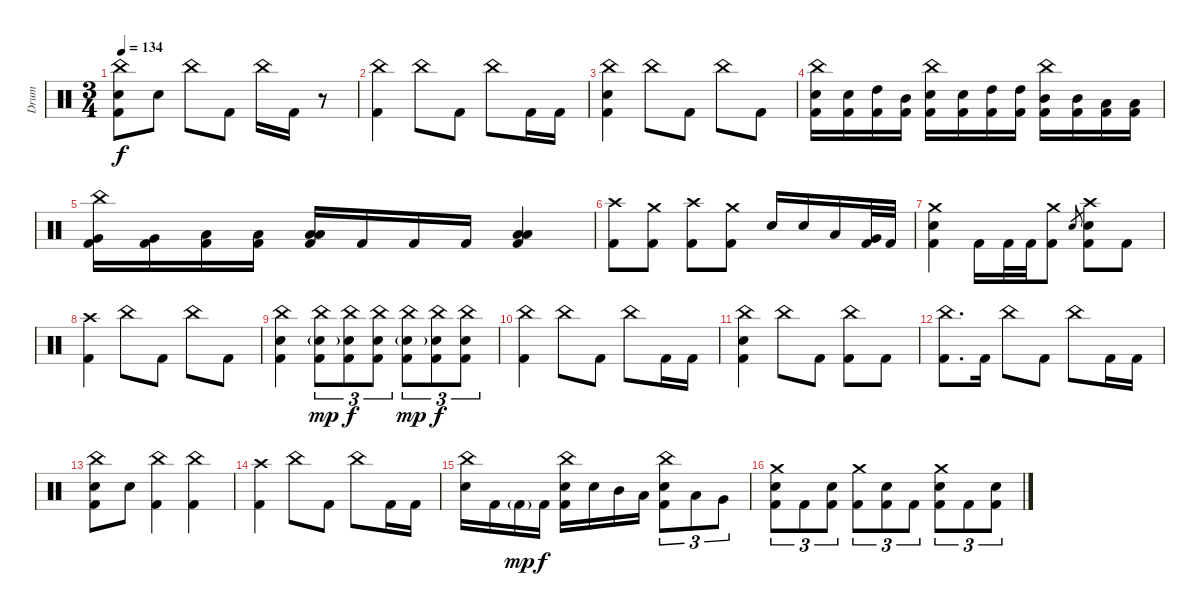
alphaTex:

\track ("Drum" "Drum") {instrument percussion}
\staff {score}
\articulation defaults
\ts (3 4)
\tempo 134
\clef neutral
\ks c
("China (hit)" "Electric Snare (hit)" "Kick (hit) 2").8{dy f} "Electric Snare (hit)".8 "China (hit)".8 "Kick (hit) 2".8 "China (hit)".16 "Kick (hit) 2".16 r.8 |
("China (hit)" "Kick (hit) 2").4 "China (hit)".8 "Kick (hit) 2".8 "China (hit)".8 "Kick (hit) 2".16 "Kick (hit) 2".16 |
("China (hit)" "Electric Snare (hit)" "Kick (hit) 2").4 "China (hit)".8 "Kick (hit) 2".8 "China (hit)".8 "Kick (hit) 2".8 |
("China (hit)" "Electric Snare (hit)" "Kick (hit) 2").16 ("Electric Snare (hit)" "Kick (hit) 2").16 ("High Tom (hit)" "Kick (hit) 2").16 ("Mid Tom (hit)" "Kick (hit) 2").16 ("China (hit)" "Electric Snare (hit)" "Kick (hit) 2").16 ("Electric Snare (hit)" "Kick (hit) 2").16 ("High Tom (hit)" "Kick (hit) 2").16 ("High Tom (hit)" "Kick (hit) 2").16 ("China (hit)" "Mid Tom (hit)" "Kick (hit) 2").16 ("Mid Tom (hit)" "Kick (hit) 2").16 ("Low Tom (hit)" "Kick (hit) 2").16 ("Low Tom (hit)" "Kick (hit) 2").16 |
("China (hit)" "Very Low Tom (hit)" "Kick (hit) 2").16 ("Very Low Tom (hit)" "Kick (hit) 2").16 ("Low Floor Tom (hit)" "Kick (hit) 2").16 ("Low Floor Tom (hit)" "Kick (hit) 2").16 ("Low Tom (hit)" "Low Tom (hit)" "Kick (hit) 2").16 "Kick (hit) 2".16 "Kick (hit) 2".16 "Kick (hit) 2".16 ("Low Tom (hit)" "Low Tom (hit)" "Kick (hit) 2").4 |
("Crash high (hit)" "Kick (hit) 2").8 ("Crash medium (hit)" "Kick (hit) 2").8 ("Crash high (hit)" "Kick (hit) 2").8 ("Crash medium (hit)" "Kick (hit) 2").8 "Electric Snare (hit)".16 "Electric Snare (hit)".16 "Low Tom (hit)".16 ("Very Low Tom (hit)" "Kick (hit) 2").32 "Kick (hit) 2".32 |
("Crash medium (hit)" "Electric Snare (hit)" "Kick (hit) 2").4 "Kick (hit) 2".16 "Kick (hit) 2".32 "Kick (hit) 2".32 ("Crash medium (hit)" "Kick (hit) 2").8 "Electric Snare (hit)".8{gr} ("Crash high (hit)" "Electric Snare (hit)" "Kick (hit) 2").8 "Kick (hit) 2".8 |
("Crash high (hit)" "Kick (hit) 2").4 "China (hit)".8 "Kick (hit) 2".8 "China (hit)".8 "Kick (hit) 2".8 |
("China (hit)" "Electric Snare (hit)" "Kick (hit) 2").4 ("China (hit)" "Electric Snare (hit)"{g} "Kick (hit) 2").8{tu (3 2) dy mp} ("China (hit)" "Electric Snare (hit)" "Kick (hit) 2").8{tu (3 2) dy f} ("China (hit)" "Electric Snare (hit)" "Kick (hit) 2").8{tu (3 2)} ("China (hit)" "Electric Snare (hit)"{g} "Kick (hit) 2").8{tu (3 2) dy mp} ("China (hit)" "Electric Snare (hit)" "Kick (hit) 2").8{tu (3 2) dy f} ("China (hit)" "Electric Snare (hit)" "Kick (hit) 2").8{tu (3 2)} |
("China (hit)" "Kick (hit) 2").4 "China (hit)".8 "Kick (hit) 2".8 "China (hit)".8 "Kick (hit) 2".16 "Kick (hit) 2".16 |
("China (hit)" "Electric Snare (hit)" "Kick (hit) 2").4 "China (hit)".8 "Kick (hit) 2".8 ("China (hit)" "Kick (hit) 2").8 "Kick (hit) 2".8 |
("China (hit)" "Kick (hit) 2").8{d} "Kick (hit) 2".16 "China (hit)".8 "Kick (hit) 2".8 "China (hit)".8 "Kick (hit) 2".16 "Kick (hit) 2".16 |
("China (hit)" "Electric Snare (hit)" "Kick (hit) 2").8 "Electric Snare (hit)".8 ("China (hit)" "Kick (hit) 2").4 ("China (hit)" "Kick (hit) 2").4 |
("Crash high (hit)" "Kick (hit) 2").4 "China (hit)".8 "Kick (hit) 2".8 "China (hit)".8 "Kick (hit) 2".16 "Kick (hit) 2".16 |
("China (hit)" "Electric Snare (hit)").16 "Kick (hit) 2".16 "Kick (hit) 2"{g}.16{dy mp} "Kick (hit) 2".16{dy f} ("China (hit)" "Electric Snare (hit)" "Kick (hit) 2").16 "Electric Snare (hit)".16 "Mid Tom (hit)".16 "Low Tom (hit)".16 ("China (hit)" "Electric Snare (hit)" "Kick (hit) 2").8{tu (3 2)} "Low Tom (hit)".8{tu (3 2)} "Very Low Tom (hit)".8{tu (3 2)} |
("Crash medium (hit)" "Electric Snare (hit)" "Kick (hit) 2").8{tu (3 2)} "Kick (hit) 2".8{tu (3 2)} ("Electric Snare (hit)" "Kick (hit) 2").8{tu (3 2)} ("Crash medium (hit)" "Kick (hit) 2").8{tu (3 2)} ("Electric Snare (hit)" "Kick (hit) 2").8{tu (3 2)} "Kick (hit) 2".8{tu (3 2)} ("Crash medium (hit)" "Electric Snare (hit)" "Kick (hit) 2").8{tu (3 2)} "Kick (hit) 2".8{tu (3 2)} ("Electric Snare (hit)" "Kick (hit) 2").8{tu (3 2)}
